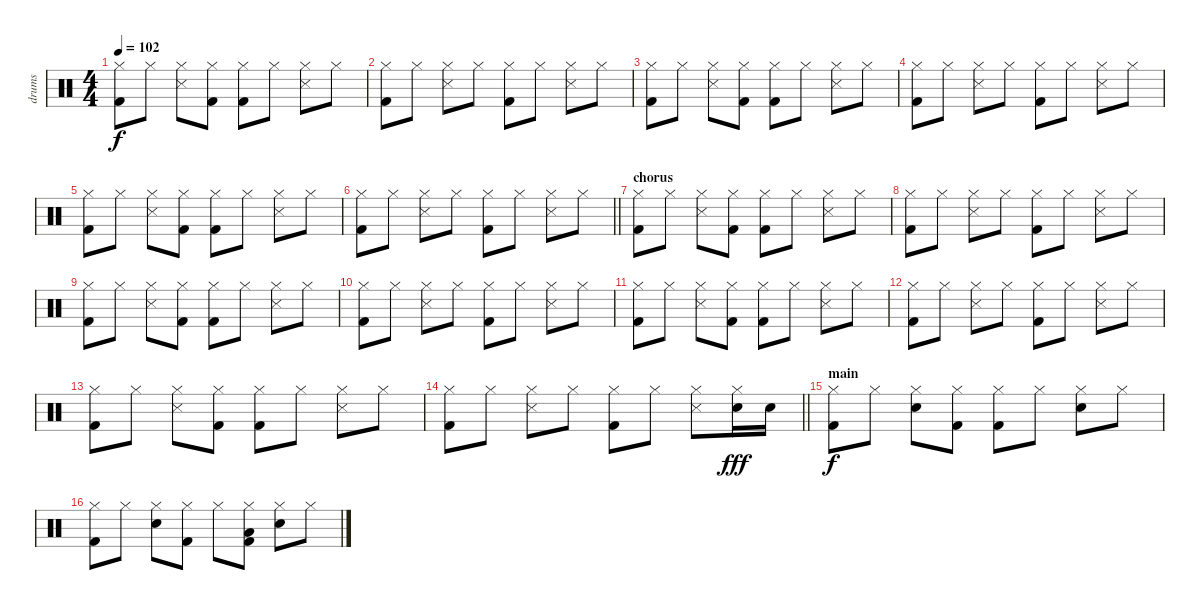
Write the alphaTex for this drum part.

\track ("drums" "drums") {instrument percussion}
\staff {score}
\articulation defaults
\ts (4 4)
\tempo 102
\clef neutral
\ks c
("Hi-Hat (closed)" "Kick (hit) 2").8{dy f} "Hi-Hat (closed)".8 ("Hi-Hat (closed)" "Snare (side stick) 3").8 ("Hi-Hat (closed)" "Kick (hit) 2").8 ("Hi-Hat (closed)" "Kick (hit) 2").8 "Hi-Hat (closed)".8 ("Hi-Hat (closed)" "Snare (side stick) 3").8 "Hi-Hat (closed)".8 |
("Hi-Hat (closed)" "Kick (hit) 2").8 "Hi-Hat (closed)".8 ("Hi-Hat (closed)" "Snare (side stick) 3").8 "Hi-Hat (closed)".8 ("Hi-Hat (closed)" "Kick (hit) 2").8 "Hi-Hat (closed)".8 ("Hi-Hat (closed)" "Snare (side stick) 3").8 "Hi-Hat (closed)".8 |
("Hi-Hat (closed)" "Kick (hit) 2").8 "Hi-Hat (closed)".8 ("Hi-Hat (closed)" "Snare (side stick) 3").8 ("Hi-Hat (closed)" "Kick (hit) 2").8 ("Hi-Hat (closed)" "Kick (hit) 2").8 "Hi-Hat (closed)".8 ("Hi-Hat (closed)" "Snare (side stick) 3").8 "Hi-Hat (closed)".8 |
("Hi-Hat (closed)" "Kick (hit) 2").8 "Hi-Hat (closed)".8 ("Hi-Hat (closed)" "Snare (side stick) 3").8 "Hi-Hat (closed)".8 ("Hi-Hat (closed)" "Kick (hit) 2").8 "Hi-Hat (closed)".8 ("Hi-Hat (closed)" "Snare (side stick) 3").8 "Hi-Hat (closed)".8 |
("Hi-Hat (closed)" "Kick (hit) 2").8 "Hi-Hat (closed)".8 ("Hi-Hat (closed)" "Snare (side stick) 3").8 ("Hi-Hat (closed)" "Kick (hit) 2").8 ("Hi-Hat (closed)" "Kick (hit) 2").8 "Hi-Hat (closed)".8 ("Hi-Hat (closed)" "Snare (side stick) 3").8 "Hi-Hat (closed)".8 |
\barLineRight lightlight
("Hi-Hat (closed)" "Kick (hit) 2").8 "Hi-Hat (closed)".8 ("Hi-Hat (closed)" "Snare (side stick) 3").8 "Hi-Hat (closed)".8 ("Hi-Hat (closed)" "Kick (hit) 2").8 "Hi-Hat (closed)".8 ("Hi-Hat (closed)" "Snare (side stick) 3").8 "Hi-Hat (closed)".8 |
\section ("" "chorus")
("Hi-Hat (closed)" "Kick (hit) 2").8 "Hi-Hat (closed)".8 ("Hi-Hat (closed)" "Snare (side stick) 3").8 ("Hi-Hat (closed)" "Kick (hit) 2").8 ("Hi-Hat (closed)" "Kick (hit) 2").8 "Hi-Hat (closed)".8 ("Hi-Hat (closed)" "Snare (side stick) 3").8 "Hi-Hat (closed)".8 |
("Hi-Hat (closed)" "Kick (hit) 2").8 "Hi-Hat (closed)".8 ("Hi-Hat (closed)" "Snare (side stick) 3").8 "Hi-Hat (closed)".8 ("Hi-Hat (closed)" "Kick (hit) 2").8 "Hi-Hat (closed)".8 ("Hi-Hat (closed)" "Snare (side stick) 3").8 "Hi-Hat (closed)".8 |
("Hi-Hat (closed)" "Kick (hit) 2").8 "Hi-Hat (closed)".8 ("Hi-Hat (closed)" "Snare (side stick) 3").8 ("Hi-Hat (closed)" "Kick (hit) 2").8 ("Hi-Hat (closed)" "Kick (hit) 2").8 "Hi-Hat (closed)".8 ("Hi-Hat (closed)" "Snare (side stick) 3").8 "Hi-Hat (closed)".8 |
("Hi-Hat (closed)" "Kick (hit) 2").8 "Hi-Hat (closed)".8 ("Hi-Hat (closed)" "Snare (side stick) 3").8 "Hi-Hat (closed)".8 ("Hi-Hat (closed)" "Kick (hit) 2").8 "Hi-Hat (closed)".8 ("Hi-Hat (closed)" "Snare (side stick) 3").8 "Hi-Hat (closed)".8 |
("Hi-Hat (closed)" "Kick (hit) 2").8 "Hi-Hat (closed)".8 ("Hi-Hat (closed)" "Snare (side stick) 3").8 ("Hi-Hat (closed)" "Kick (hit) 2").8 ("Hi-Hat (closed)" "Kick (hit) 2").8 "Hi-Hat (closed)".8 ("Hi-Hat (closed)" "Snare (side stick) 3").8 "Hi-Hat (closed)".8 |
("Hi-Hat (closed)" "Kick (hit) 2").8 "Hi-Hat (closed)".8 ("Hi-Hat (closed)" "Snare (side stick) 3").8 "Hi-Hat (closed)".8 ("Hi-Hat (closed)" "Kick (hit) 2").8 "Hi-Hat (closed)".8 ("Hi-Hat (closed)" "Snare (side stick) 3").8 "Hi-Hat (closed)".8 |
("Hi-Hat (closed)" "Kick (hit) 2").8 "Hi-Hat (closed)".8 ("Hi-Hat (closed)" "Snare (side stick) 3").8 ("Hi-Hat (closed)" "Kick (hit) 2").8 ("Hi-Hat (closed)" "Kick (hit) 2").8 "Hi-Hat (closed)".8 ("Hi-Hat (closed)" "Snare (side stick) 3").8 "Hi-Hat (closed)".8 |
\barLineRight lightlight
("Hi-Hat (closed)" "Kick (hit) 2").8 "Hi-Hat (closed)".8 ("Hi-Hat (closed)" "Snare (side stick) 3").8 "Hi-Hat (closed)".8 ("Hi-Hat (closed)" "Kick (hit) 2").8 "Hi-Hat (closed)".8 ("Hi-Hat (closed)" "Snare (side stick) 3").8 ("Hi-Hat (closed)" "Snare (hit) 2").16{dy fff} "Snare (hit) 2".16 |
\section ("" "main")
("Hi-Hat (closed)" "Kick (hit) 2").8{dy f} "Hi-Hat (closed)".8 ("Hi-Hat (closed)" "Snare (hit) 2").8 ("Hi-Hat (closed)" "Kick (hit) 2").8 ("Hi-Hat (closed)" "Kick (hit) 2").8 "Hi-Hat (closed)".8 ("Hi-Hat (closed)" "Snare (hit) 2").8 "Hi-Hat (closed)".8 |
("Hi-Hat (closed)" "Kick (hit) 2").8 "Hi-Hat (closed)".8 ("Hi-Hat (closed)" "Snare (hit) 2").8 ("Hi-Hat (closed)" "Kick (hit) 2").8 "Hi-Hat (closed)".8 ("Hi-Hat (closed)" "Low Floor Tom (hit)" "Kick (hit) 2").8 ("Hi-Hat (closed)" "Snare (hit) 2").8 "Hi-Hat (closed)".8
